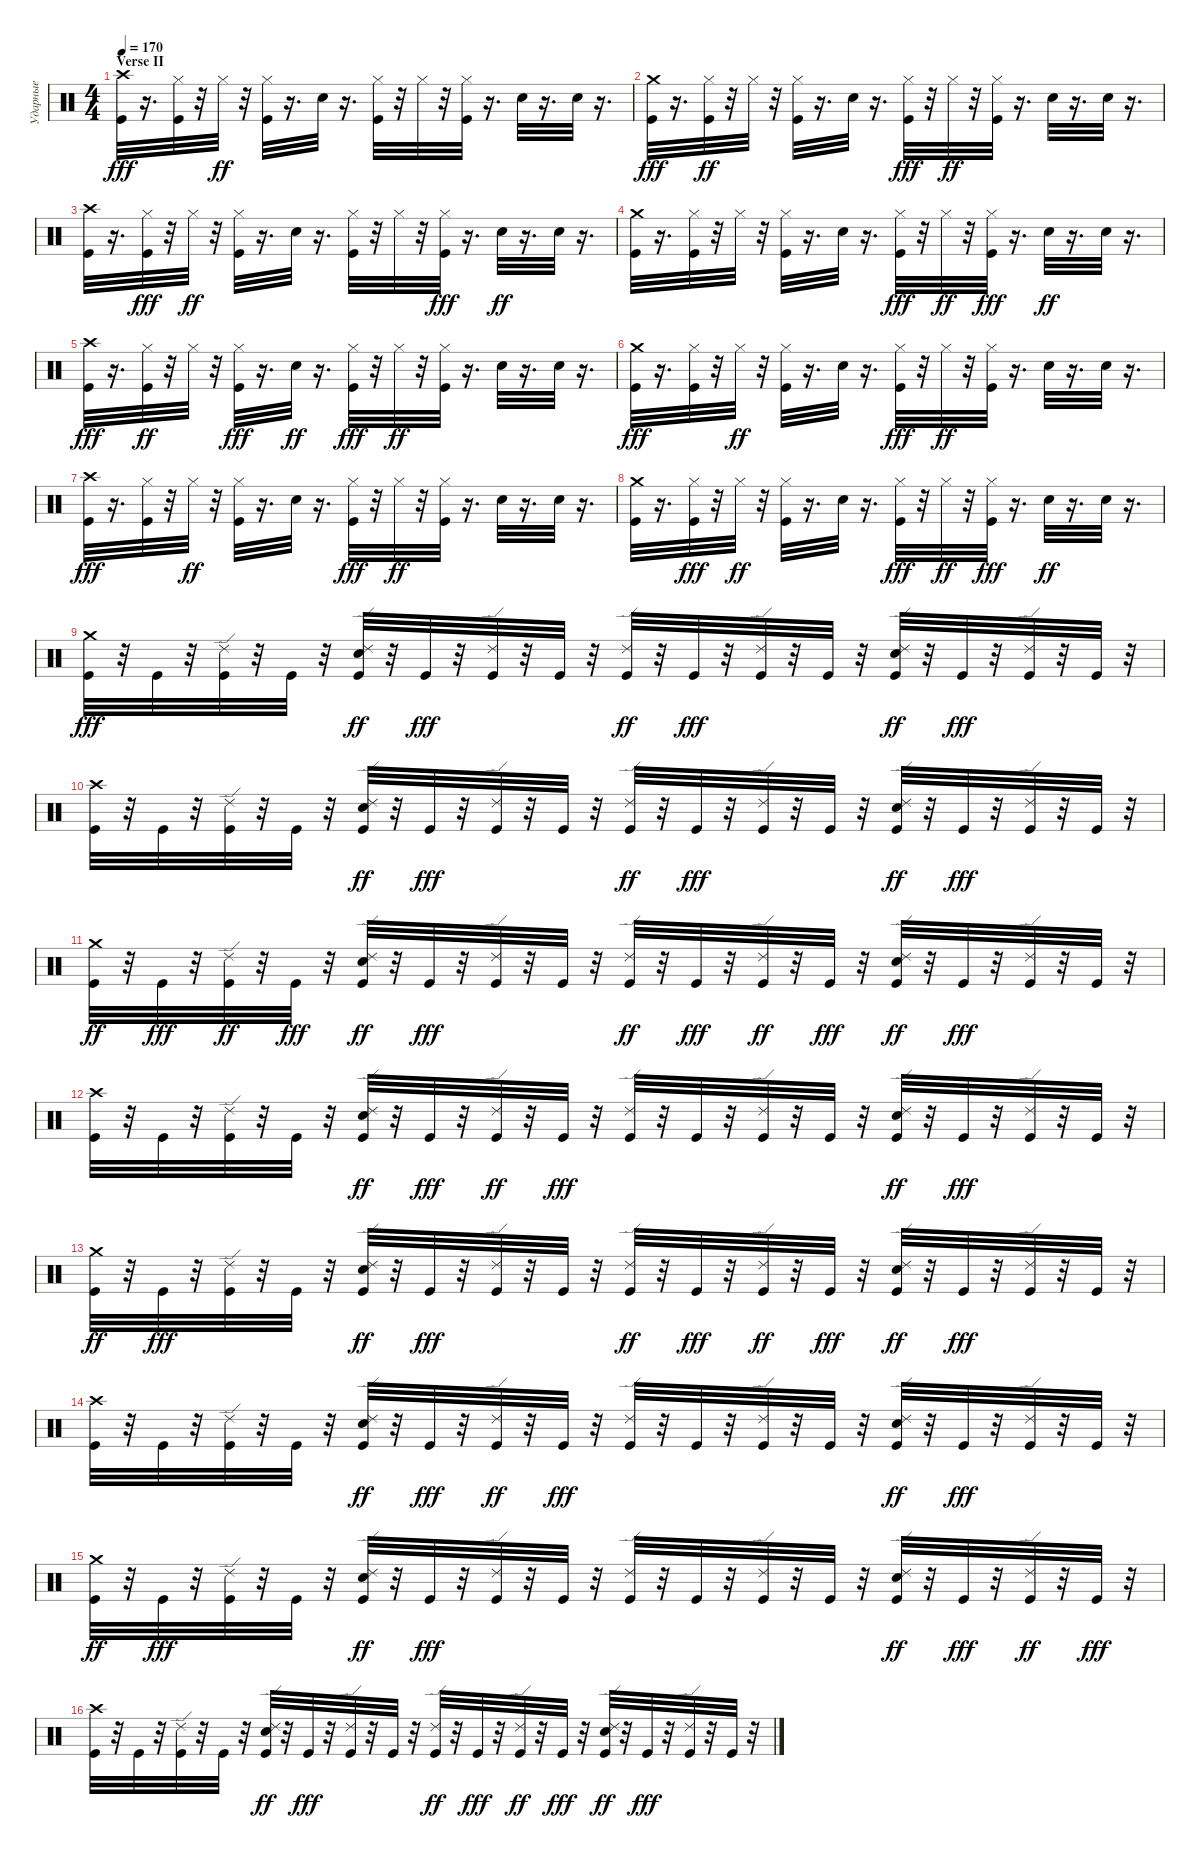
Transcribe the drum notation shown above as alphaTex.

\track ("Ударные" "Ударные") {instrument percussion}
\staff {score}
\articulation defaults
\ts (4 4)
\section ("" "Verse II")
\tempo 170
\clef neutral
\ks c
("Crash high (hit)" "Kick (hit)").32{dy fff} r.16{d} ("Hi-Hat (closed)" "Kick (hit)").32 r.32 "Hi-Hat (closed)".32{dy ff} r.32 ("Kick (hit)" "Hi-Hat (closed)").32 r.16{d} "Snare (hit) 2".32 r.16{d} ("Kick (hit)" "Hi-Hat (closed)").32 r.32 "Hi-Hat (closed)".32 r.32 ("Kick (hit)" "Hi-Hat (closed)").32 r.16{d} "Snare (hit) 2".32 r.16{d} "Snare (hit) 2".32 r.16{d} |
("Crash medium (hit)" "Kick (hit)").32{dy fff} r.16{d} ("Kick (hit)" "Hi-Hat (closed)").32{dy ff} r.32 "Hi-Hat (closed)".32 r.32 ("Kick (hit)" "Hi-Hat (closed)").32 r.16{d} "Snare (hit) 2".32 r.16{d} ("Hi-Hat (closed)" "Kick (hit)").32{dy fff} r.32 "Hi-Hat (closed)".32{dy ff} r.32 ("Kick (hit)" "Hi-Hat (closed)").32 r.16{d} "Snare (hit) 2".32 r.16{d} "Snare (hit) 2".32 r.16{d} |
("Kick (hit)" "Crash high (hit)").32 r.16{d} ("Hi-Hat (closed)" "Kick (hit)").32{dy fff} r.32 "Hi-Hat (closed)".32{dy ff} r.32 ("Kick (hit)" "Hi-Hat (closed)").32 r.16{d} "Snare (hit) 2".32 r.16{d} ("Kick (hit)" "Hi-Hat (closed)").32 r.32 "Hi-Hat (closed)".32 r.32 ("Hi-Hat (closed)" "Kick (hit)").32{dy fff} r.16{d} "Snare (hit) 2".32{dy ff} r.16{d} "Snare (hit) 2".32 r.16{d} |
("Kick (hit)" "Crash medium (hit)").32 r.16{d} ("Kick (hit)" "Hi-Hat (closed)").32 r.32 "Hi-Hat (closed)".32 r.32 ("Kick (hit)" "Hi-Hat (closed)").32 r.16{d} "Snare (hit) 2".32 r.16{d} ("Hi-Hat (closed)" "Kick (hit)").32{dy fff} r.32 "Hi-Hat (closed)".32{dy ff} r.32 ("Hi-Hat (closed)" "Kick (hit)").32{dy fff} r.16{d} "Snare (hit) 2".32{dy ff} r.16{d} "Snare (hit) 2".32 r.16{d} |
("Crash high (hit)" "Kick (hit)").32{dy fff} r.16{d} ("Kick (hit)" "Hi-Hat (closed)").32{dy ff} r.32 "Hi-Hat (closed)".32 r.32 ("Hi-Hat (closed)" "Kick (hit)").32{dy fff} r.16{d} "Snare (hit) 2".32{dy ff} r.16{d} ("Hi-Hat (closed)" "Kick (hit)").32{dy fff} r.32 "Hi-Hat (closed)".32{dy ff} r.32 ("Kick (hit)" "Hi-Hat (closed)").32 r.16{d} "Snare (hit) 2".32 r.16{d} "Snare (hit) 2".32 r.16{d} |
("Crash medium (hit)" "Kick (hit)").32{dy fff} r.16{d} ("Hi-Hat (closed)" "Kick (hit)").32 r.32 "Hi-Hat (closed)".32{dy ff} r.32 ("Kick (hit)" "Hi-Hat (closed)").32 r.16{d} "Snare (hit) 2".32 r.16{d} ("Hi-Hat (closed)" "Kick (hit)").32{dy fff} r.32 "Hi-Hat (closed)".32{dy ff} r.32 ("Kick (hit)" "Hi-Hat (closed)").32 r.16{d} "Snare (hit) 2".32 r.16{d} "Snare (hit) 2".32 r.16{d} |
("Crash high (hit)" "Kick (hit)").32{dy fff} r.16{d} ("Hi-Hat (closed)" "Kick (hit)").32 r.32 "Hi-Hat (closed)".32{dy ff} r.32 ("Kick (hit)" "Hi-Hat (closed)").32 r.16{d} "Snare (hit) 2".32 r.16{d} ("Hi-Hat (closed)" "Kick (hit)").32{dy fff} r.32 "Hi-Hat (closed)".32{dy ff} r.32 ("Kick (hit)" "Hi-Hat (closed)").32 r.16{d} "Snare (hit) 2".32 r.16{d} "Snare (hit) 2".32 r.16{d} |
("Kick (hit)" "Crash medium (hit)").32 r.16{d} ("Hi-Hat (closed)" "Kick (hit)").32{dy fff} r.32 "Hi-Hat (closed)".32{dy ff} r.32 ("Kick (hit)" "Hi-Hat (closed)").32 r.16{d} "Snare (hit) 2".32 r.16{d} ("Hi-Hat (closed)" "Kick (hit)").32{dy fff} r.32 "Hi-Hat (closed)".32{dy ff} r.32 ("Hi-Hat (closed)" "Kick (hit)").32{dy fff} r.16{d} "Snare (hit) 2".32{dy ff} r.16{d} "Snare (hit) 2".32 r.16{d} |
("Crash medium (hit)" "Kick (hit)").32{dy fff} r.32 "Kick (hit)".32 r.32 ("Ride (edge) 2" "Kick (hit)").32 r.32 "Kick (hit)".32 r.32 ("Ride (edge) 2" "Kick (hit)" "Snare (hit) 2").32{dy ff} r.32 "Kick (hit)".32{dy fff} r.32 ("Ride (edge) 2" "Kick (hit)").32 r.32 "Kick (hit)".32 r.32 ("Kick (hit)" "Ride (edge) 2").32{dy ff} r.32 "Kick (hit)".32{dy fff} r.32 ("Ride (edge) 2" "Kick (hit)").32 r.32 "Kick (hit)".32 r.32 ("Ride (edge) 2" "Kick (hit)" "Snare (hit) 2").32{dy ff} r.32 "Kick (hit)".32{dy fff} r.32 ("Ride (edge) 2" "Kick (hit)").32 r.32 "Kick (hit)".32 r.32 |
("Crash high (hit)" "Kick (hit)").32 r.32 "Kick (hit)".32 r.32 ("Ride (edge) 2" "Kick (hit)").32 r.32 "Kick (hit)".32 r.32 ("Ride (edge) 2" "Kick (hit)" "Snare (hit) 2").32{dy ff} r.32 "Kick (hit)".32{dy fff} r.32 ("Ride (edge) 2" "Kick (hit)").32 r.32 "Kick (hit)".32 r.32 ("Kick (hit)" "Ride (edge) 2").32{dy ff} r.32 "Kick (hit)".32{dy fff} r.32 ("Ride (edge) 2" "Kick (hit)").32 r.32 "Kick (hit)".32 r.32 ("Ride (edge) 2" "Kick (hit)" "Snare (hit) 2").32{dy ff} r.32 "Kick (hit)".32{dy fff} r.32 ("Ride (edge) 2" "Kick (hit)").32 r.32 "Kick (hit)".32 r.32 |
("Kick (hit)" "Crash medium (hit)").32{dy ff} r.32 "Kick (hit)".32{dy fff} r.32 ("Kick (hit)" "Ride (edge) 2").32{dy ff} r.32 "Kick (hit)".32{dy fff} r.32 ("Kick (hit)" "Ride (edge) 2" "Snare (hit) 2").32{dy ff} r.32 "Kick (hit)".32{dy fff} r.32 ("Ride (edge) 2" "Kick (hit)").32 r.32 "Kick (hit)".32 r.32 ("Kick (hit)" "Ride (edge) 2").32{dy ff} r.32 "Kick (hit)".32{dy fff} r.32 ("Kick (hit)" "Ride (edge) 2").32{dy ff} r.32 "Kick (hit)".32{dy fff} r.32 ("Kick (hit)" "Ride (edge) 2" "Snare (hit) 2").32{dy ff} r.32 "Kick (hit)".32{dy fff} r.32 ("Ride (edge) 2" "Kick (hit)").32 r.32 "Kick (hit)".32 r.32 |
("Kick (hit)" "Crash high (hit)").32 r.32 "Kick (hit)".32 r.32 ("Ride (edge) 2" "Kick (hit)").32 r.32 "Kick (hit)".32 r.32 ("Ride (edge) 2" "Kick (hit)" "Snare (hit) 2").32{dy ff} r.32 "Kick (hit)".32{dy fff} r.32 ("Kick (hit)" "Ride (edge) 2").32{dy ff} r.32 "Kick (hit)".32{dy fff} r.32 ("Ride (edge) 2" "Kick (hit)").32 r.32 "Kick (hit)".32 r.32 ("Ride (edge) 2" "Kick (hit)").32 r.32 "Kick (hit)".32 r.32 ("Kick (hit)" "Ride (edge) 2" "Snare (hit) 2").32{dy ff} r.32 "Kick (hit)".32{dy fff} r.32 ("Ride (edge) 2" "Kick (hit)").32 r.32 "Kick (hit)".32 r.32 |
("Kick (hit)" "Crash medium (hit)").32{dy ff} r.32 "Kick (hit)".32{dy fff} r.32 ("Ride (edge) 2" "Kick (hit)").32 r.32 "Kick (hit)".32 r.32 ("Kick (hit)" "Ride (edge) 2" "Snare (hit) 2").32{dy ff} r.32 "Kick (hit)".32{dy fff} r.32 ("Ride (edge) 2" "Kick (hit)").32 r.32 "Kick (hit)".32 r.32 ("Kick (hit)" "Ride (edge) 2").32{dy ff} r.32 "Kick (hit)".32{dy fff} r.32 ("Kick (hit)" "Ride (edge) 2").32{dy ff} r.32 "Kick (hit)".32{dy fff} r.32 ("Kick (hit)" "Ride (edge) 2" "Snare (hit) 2").32{dy ff} r.32 "Kick (hit)".32{dy fff} r.32 ("Ride (edge) 2" "Kick (hit)").32 r.32 "Kick (hit)".32 r.32 |
("Kick (hit)" "Crash high (hit)").32 r.32 "Kick (hit)".32 r.32 ("Ride (edge) 2" "Kick (hit)").32 r.32 "Kick (hit)".32 r.32 ("Ride (edge) 2" "Kick (hit)" "Snare (hit) 2").32{dy ff} r.32 "Kick (hit)".32{dy fff} r.32 ("Kick (hit)" "Ride (edge) 2").32{dy ff} r.32 "Kick (hit)".32{dy fff} r.32 ("Ride (edge) 2" "Kick (hit)").32 r.32 "Kick (hit)".32 r.32 ("Ride (edge) 2" "Kick (hit)").32 r.32 "Kick (hit)".32 r.32 ("Kick (hit)" "Ride (edge) 2" "Snare (hit) 2").32{dy ff} r.32 "Kick (hit)".32{dy fff} r.32 ("Ride (edge) 2" "Kick (hit)").32 r.32 "Kick (hit)".32 r.32 |
("Kick (hit)" "Crash medium (hit)").32{dy ff} r.32 "Kick (hit)".32{dy fff} r.32 ("Ride (edge) 2" "Kick (hit)").32 r.32 "Kick (hit)".32 r.32 ("Ride (edge) 2" "Kick (hit)" "Snare (hit) 2").32{dy ff} r.32 "Kick (hit)".32{dy fff} r.32 ("Ride (edge) 2" "Kick (hit)").32 r.32 "Kick (hit)".32 r.32 ("Ride (edge) 2" "Kick (hit)").32 r.32 "Kick (hit)".32 r.32 ("Ride (edge) 2" "Kick (hit)").32 r.32 "Kick (hit)".32 r.32 ("Ride (edge) 2" "Kick (hit)" "Snare (hit) 2").32{dy ff} r.32 "Kick (hit)".32{dy fff} r.32 ("Kick (hit)" "Ride (edge) 2").32{dy ff} r.32 "Kick (hit)".32{dy fff} r.32 |
("Crash high (hit)" "Kick (hit)").32 r.32 "Kick (hit)".32 r.32 ("Ride (edge) 2" "Kick (hit)").32 r.32 "Kick (hit)".32 r.32 ("Kick (hit)" "Ride (edge) 2" "Snare (hit) 2").32{dy ff} r.32 "Kick (hit)".32{dy fff} r.32 ("Ride (edge) 2" "Kick (hit)").32 r.32 "Kick (hit)".32 r.32 ("Kick (hit)" "Ride (edge) 2").32{dy ff} r.32 "Kick (hit)".32{dy fff} r.32 ("Kick (hit)" "Ride (edge) 2").32{dy ff} r.32 "Kick (hit)".32{dy fff} r.32 ("Ride (edge) 2" "Kick (hit)" "Snare (hit) 2").32{dy ff} r.32 "Kick (hit)".32{dy fff} r.32 ("Ride (edge) 2" "Kick (hit)").32 r.32 "Kick (hit)".32 r.32
